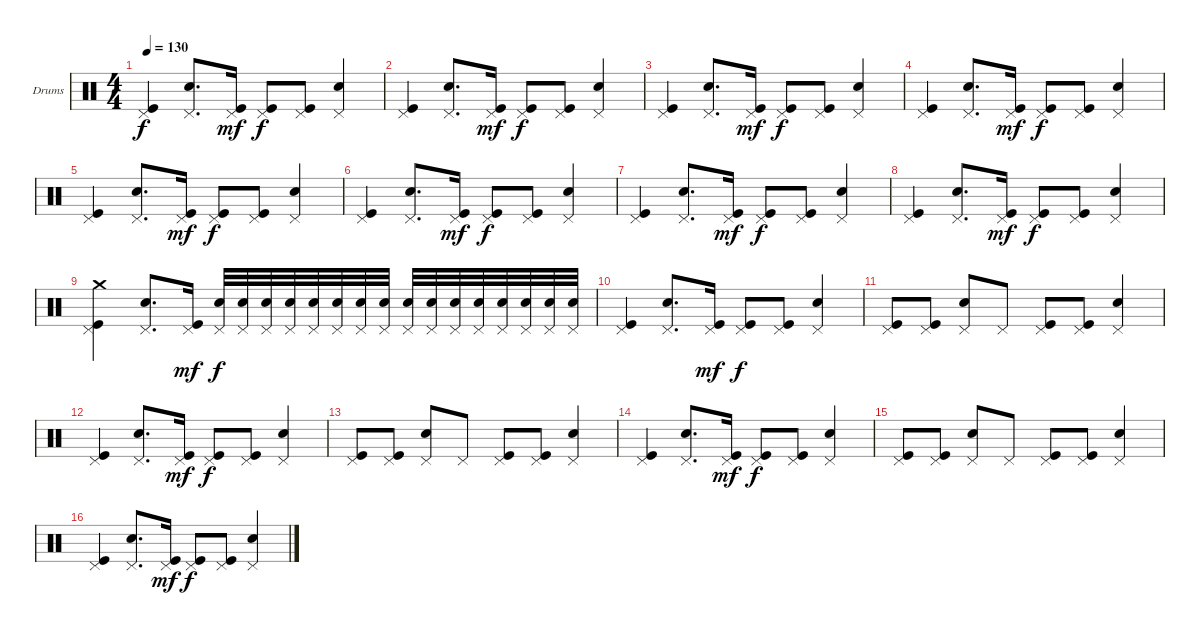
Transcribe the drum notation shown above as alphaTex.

\defaultSystemsLayout 4
\bracketExtendMode groupsimilarinstruments
\firstSystemTrackNameOrientation horizontal
\otherSystemsTrackNameOrientation horizontal
\track ("Е. Кулаков" "Drums") {instrument percussion}
\staff {score}
\articulation defaults
\ts (4 4)
\tempo 130
\clef neutral
\ks c
("Kick (hit)" "Pedal Hi-Hat (hit)").4{dy f} ("Snare (hit) 2" "Pedal Hi-Hat (hit)").8{d} ("Kick (hit)" "Pedal Hi-Hat (hit)").16{dy mf} ("Kick (hit)" "Pedal Hi-Hat (hit)").8{dy f} ("Kick (hit)" "Pedal Hi-Hat (hit)").8 ("Snare (hit) 2" "Pedal Hi-Hat (hit)").4 |
("Kick (hit)" "Pedal Hi-Hat (hit)").4 ("Snare (hit) 2" "Pedal Hi-Hat (hit)").8{d} ("Kick (hit)" "Pedal Hi-Hat (hit)").16{dy mf} ("Kick (hit)" "Pedal Hi-Hat (hit)").8{dy f} ("Kick (hit)" "Pedal Hi-Hat (hit)").8 ("Snare (hit) 2" "Pedal Hi-Hat (hit)").4 |
("Kick (hit)" "Pedal Hi-Hat (hit)").4 ("Snare (hit) 2" "Pedal Hi-Hat (hit)").8{d} ("Kick (hit)" "Pedal Hi-Hat (hit)").16{dy mf} ("Kick (hit)" "Pedal Hi-Hat (hit)").8{dy f} ("Kick (hit)" "Pedal Hi-Hat (hit)").8 ("Snare (hit) 2" "Pedal Hi-Hat (hit)").4 |
("Kick (hit)" "Pedal Hi-Hat (hit)").4 ("Snare (hit) 2" "Pedal Hi-Hat (hit)").8{d} ("Kick (hit)" "Pedal Hi-Hat (hit)").16{dy mf} ("Kick (hit)" "Pedal Hi-Hat (hit)").8{dy f} ("Kick (hit)" "Pedal Hi-Hat (hit)").8 ("Snare (hit) 2" "Pedal Hi-Hat (hit)").4 |
("Kick (hit)" "Pedal Hi-Hat (hit)").4 ("Snare (hit) 2" "Pedal Hi-Hat (hit)").8{d} ("Kick (hit)" "Pedal Hi-Hat (hit)").16{dy mf} ("Kick (hit)" "Pedal Hi-Hat (hit)").8{dy f} ("Kick (hit)" "Pedal Hi-Hat (hit)").8 ("Snare (hit) 2" "Pedal Hi-Hat (hit)").4 |
("Kick (hit)" "Pedal Hi-Hat (hit)").4 ("Snare (hit) 2" "Pedal Hi-Hat (hit)").8{d} ("Kick (hit)" "Pedal Hi-Hat (hit)").16{dy mf} ("Kick (hit)" "Pedal Hi-Hat (hit)").8{dy f} ("Kick (hit)" "Pedal Hi-Hat (hit)").8 ("Snare (hit) 2" "Pedal Hi-Hat (hit)").4 |
("Kick (hit)" "Pedal Hi-Hat (hit)").4 ("Snare (hit) 2" "Pedal Hi-Hat (hit)").8{d} ("Kick (hit)" "Pedal Hi-Hat (hit)").16{dy mf} ("Kick (hit)" "Pedal Hi-Hat (hit)").8{dy f} ("Kick (hit)" "Pedal Hi-Hat (hit)").8 ("Snare (hit) 2" "Pedal Hi-Hat (hit)").4 |
("Kick (hit)" "Pedal Hi-Hat (hit)").4 ("Snare (hit) 2" "Pedal Hi-Hat (hit)").8{d} ("Kick (hit)" "Pedal Hi-Hat (hit)").16{dy mf} ("Kick (hit)" "Pedal Hi-Hat (hit)").8{dy f} ("Kick (hit)" "Pedal Hi-Hat (hit)").8 ("Snare (hit) 2" "Pedal Hi-Hat (hit)").4 |
("Kick (hit)" "Pedal Hi-Hat (hit)" "Crash medium (hit)").4 ("Snare (hit) 2" "Pedal Hi-Hat (hit)").8{d} ("Kick (hit)" "Pedal Hi-Hat (hit)").16{dy mf} ("Snare (hit) 2" "Pedal Hi-Hat (hit)").32{dy f} ("Snare (hit) 2" "Pedal Hi-Hat (hit)").32 ("Snare (hit) 2" "Pedal Hi-Hat (hit)").32 ("Snare (hit) 2" "Pedal Hi-Hat (hit)").32 ("Snare (hit) 2" "Pedal Hi-Hat (hit)").32 ("Snare (hit) 2" "Pedal Hi-Hat (hit)").32 ("Snare (hit) 2" "Pedal Hi-Hat (hit)").32 ("Snare (hit) 2" "Pedal Hi-Hat (hit)").32 ("Snare (hit) 2" "Pedal Hi-Hat (hit)").32 ("Snare (hit) 2" "Pedal Hi-Hat (hit)").32 ("Snare (hit) 2" "Pedal Hi-Hat (hit)").32 ("Snare (hit) 2" "Pedal Hi-Hat (hit)").32 ("Snare (hit) 2" "Pedal Hi-Hat (hit)").32 ("Snare (hit) 2" "Pedal Hi-Hat (hit)").32 ("Snare (hit) 2" "Pedal Hi-Hat (hit)").32 ("Snare (hit) 2" "Pedal Hi-Hat (hit)").32 |
("Kick (hit)" "Pedal Hi-Hat (hit)").4 ("Snare (hit) 2" "Pedal Hi-Hat (hit)").8{d} ("Kick (hit)" "Pedal Hi-Hat (hit)").16{dy mf} ("Kick (hit)" "Pedal Hi-Hat (hit)").8{dy f} ("Kick (hit)" "Pedal Hi-Hat (hit)").8 ("Snare (hit) 2" "Pedal Hi-Hat (hit)").4 |
("Kick (hit)" "Pedal Hi-Hat (hit)").8 ("Kick (hit)" "Pedal Hi-Hat (hit)").8 ("Snare (hit) 2" "Pedal Hi-Hat (hit)").8 "Pedal Hi-Hat (hit)".8 ("Kick (hit)" "Pedal Hi-Hat (hit)").8 ("Kick (hit)" "Pedal Hi-Hat (hit)").8 ("Snare (hit) 2" "Pedal Hi-Hat (hit)").4 |
("Kick (hit)" "Pedal Hi-Hat (hit)").4 ("Snare (hit) 2" "Pedal Hi-Hat (hit)").8{d} ("Kick (hit)" "Pedal Hi-Hat (hit)").16{dy mf} ("Kick (hit)" "Pedal Hi-Hat (hit)").8{dy f} ("Kick (hit)" "Pedal Hi-Hat (hit)").8 ("Snare (hit) 2" "Pedal Hi-Hat (hit)").4 |
("Kick (hit)" "Pedal Hi-Hat (hit)").8 ("Kick (hit)" "Pedal Hi-Hat (hit)").8 ("Snare (hit) 2" "Pedal Hi-Hat (hit)").8 "Pedal Hi-Hat (hit)".8 ("Kick (hit)" "Pedal Hi-Hat (hit)").8 ("Kick (hit)" "Pedal Hi-Hat (hit)").8 ("Snare (hit) 2" "Pedal Hi-Hat (hit)").4 |
("Kick (hit)" "Pedal Hi-Hat (hit)").4 ("Snare (hit) 2" "Pedal Hi-Hat (hit)").8{d} ("Kick (hit)" "Pedal Hi-Hat (hit)").16{dy mf} ("Kick (hit)" "Pedal Hi-Hat (hit)").8{dy f} ("Kick (hit)" "Pedal Hi-Hat (hit)").8 ("Snare (hit) 2" "Pedal Hi-Hat (hit)").4 |
("Kick (hit)" "Pedal Hi-Hat (hit)").8 ("Kick (hit)" "Pedal Hi-Hat (hit)").8 ("Snare (hit) 2" "Pedal Hi-Hat (hit)").8 "Pedal Hi-Hat (hit)".8 ("Kick (hit)" "Pedal Hi-Hat (hit)").8 ("Kick (hit)" "Pedal Hi-Hat (hit)").8 ("Snare (hit) 2" "Pedal Hi-Hat (hit)").4 |
("Kick (hit)" "Pedal Hi-Hat (hit)").4 ("Snare (hit) 2" "Pedal Hi-Hat (hit)").8{d} ("Kick (hit)" "Pedal Hi-Hat (hit)").16{dy mf} ("Kick (hit)" "Pedal Hi-Hat (hit)").8{dy f} ("Kick (hit)" "Pedal Hi-Hat (hit)").8 ("Snare (hit) 2" "Pedal Hi-Hat (hit)").4
